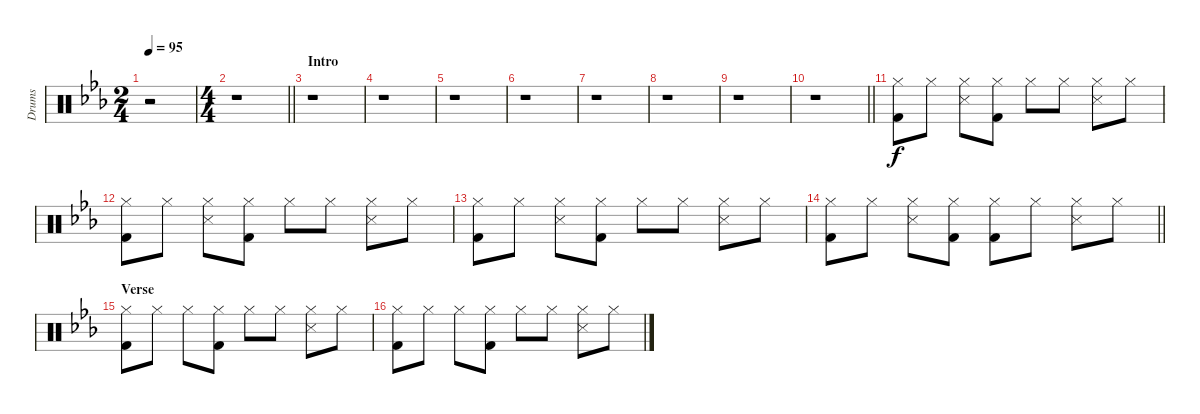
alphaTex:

\track ("Drums" "Drums") {instrument percussion}
\staff {score}
\articulation defaults
\ts (2 4)
\tempo 95
\clef neutral
\ks eb
r.2{dy f} |
\ts (4 4)
\barLineRight lightlight
r.1 |
\section ("" "Intro")
r.1 |
r.1 |
r.1 |
r.1 |
r.1 |
r.1 |
r.1 |
\barLineRight lightlight
r.1 |
\section ("" "")
("Hi-Hat (closed)" "Kick (hit) 2").8 "Hi-Hat (closed)".8 ("Hi-Hat (closed)" "Snare (side stick) 3").8 ("Hi-Hat (closed)" "Kick (hit) 2").8 "Hi-Hat (closed)".8 "Hi-Hat (closed)".8 ("Hi-Hat (closed)" "Snare (side stick) 3").8 "Hi-Hat (closed)".8 |
("Hi-Hat (closed)" "Kick (hit) 2").8 "Hi-Hat (closed)".8 ("Hi-Hat (closed)" "Snare (side stick) 3").8 ("Hi-Hat (closed)" "Kick (hit) 2").8 "Hi-Hat (closed)".8 "Hi-Hat (closed)".8 ("Hi-Hat (closed)" "Snare (side stick) 3").8 "Hi-Hat (closed)".8 |
("Hi-Hat (closed)" "Kick (hit) 2").8 "Hi-Hat (closed)".8 ("Hi-Hat (closed)" "Snare (side stick) 3").8 ("Hi-Hat (closed)" "Kick (hit) 2").8 "Hi-Hat (closed)".8 "Hi-Hat (closed)".8 ("Hi-Hat (closed)" "Snare (side stick) 3").8 "Hi-Hat (closed)".8 |
\barLineRight lightlight
("Hi-Hat (closed)" "Kick (hit) 2").8 "Hi-Hat (closed)".8 ("Hi-Hat (closed)" "Snare (side stick) 3").8 ("Hi-Hat (closed)" "Kick (hit) 2").8 ("Hi-Hat (closed)" "Kick (hit) 2").8 "Hi-Hat (closed)".8 ("Hi-Hat (closed)" "Snare (side stick) 3").8 "Hi-Hat (closed)".8 |
\section ("" "Verse")
("Hi-Hat (closed)" "Kick (hit) 2").8 "Hi-Hat (closed)".8 "Hi-Hat (closed)".8 ("Hi-Hat (closed)" "Kick (hit) 2").8 "Hi-Hat (closed)".8 "Hi-Hat (closed)".8 ("Hi-Hat (closed)" "Snare (side stick) 3").8 "Hi-Hat (closed)".8 |
("Hi-Hat (closed)" "Kick (hit) 2").8 "Hi-Hat (closed)".8 "Hi-Hat (closed)".8 ("Hi-Hat (closed)" "Kick (hit) 2").8 "Hi-Hat (closed)".8 "Hi-Hat (closed)".8 ("Hi-Hat (closed)" "Snare (side stick) 3").8 "Hi-Hat (closed)".8
